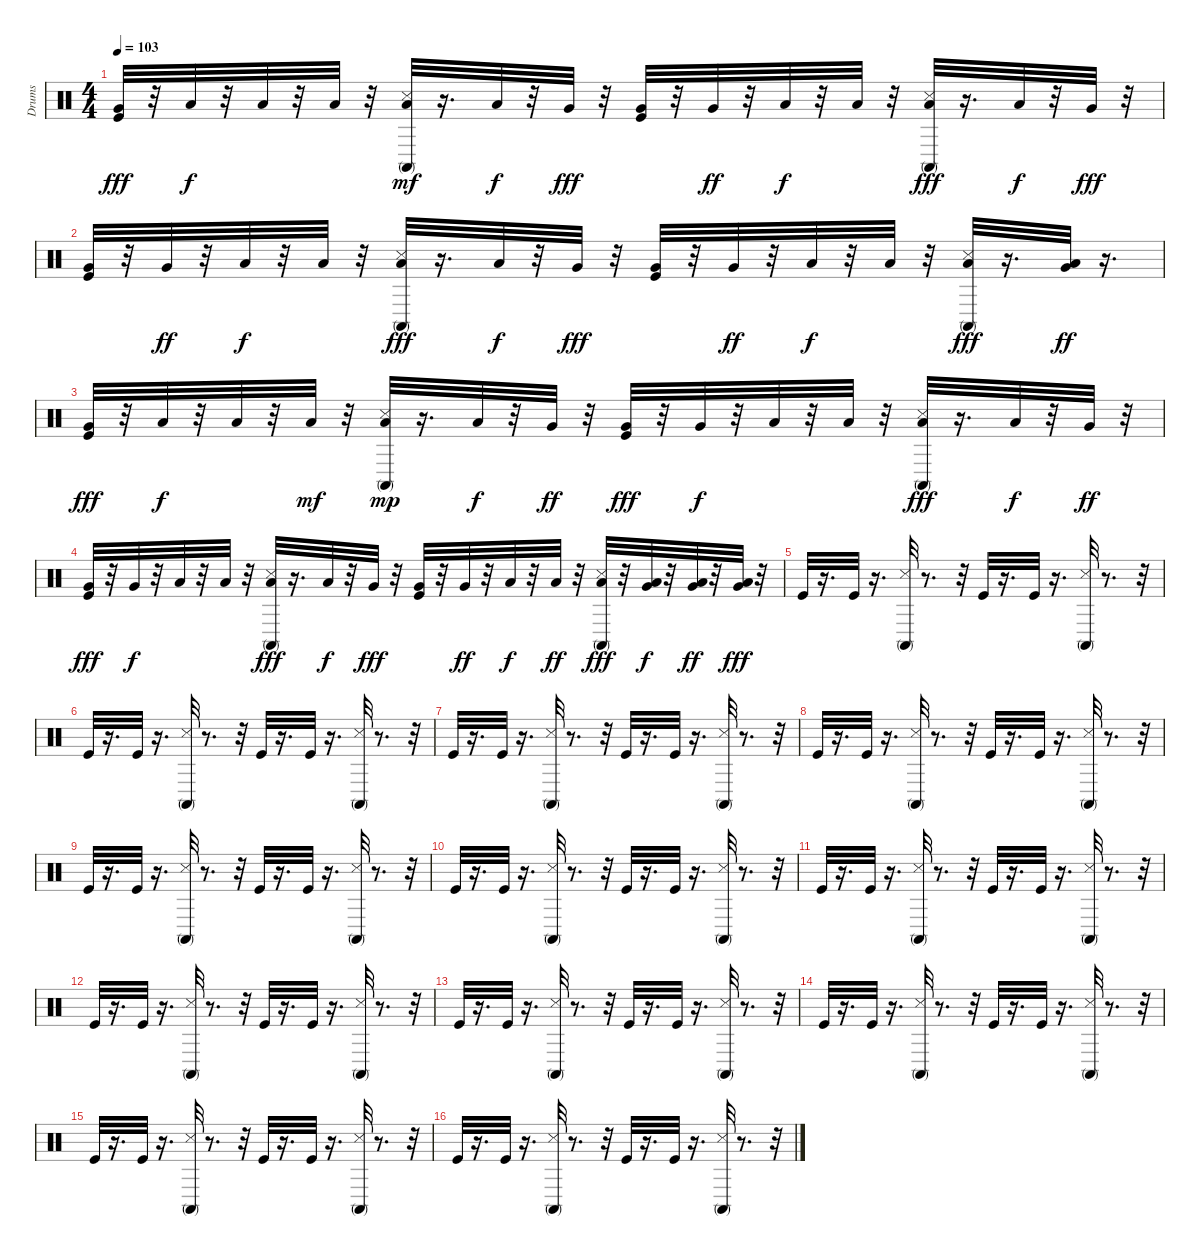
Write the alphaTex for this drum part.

\track ("Drums" "Drums") {instrument percussion}
\staff {score}
\articulation defaults
\ts (4 4)
\tempo 103
\clef neutral
\ks c
("Very Low Tom (hit)" "Kick (hit)").32{dy fff} r.32 "Low Floor Tom (hit)".32{dy f} r.32 "Low Floor Tom (hit)".32 r.32 "Low Floor Tom (hit)".32 r.32 ("Conga high (mute)" "Snare (side stick) 3" "Low Floor Tom (hit)").32{dy mf} r.16{d} "Low Floor Tom (hit)".32{dy f} r.32 "Very Low Tom (hit)".32{dy fff} r.32 ("Very Low Tom (hit)" "Kick (hit)").32 r.32 "Very Low Tom (hit)".32{dy ff} r.32 "Low Floor Tom (hit)".32{dy f} r.32 "Low Floor Tom (hit)".32 r.32 ("Conga high (mute)" "Low Floor Tom (hit)" "Snare (side stick) 3").32{dy fff} r.16{d} "Low Floor Tom (hit)".32{dy f} r.32 "Very Low Tom (hit)".32{dy fff} r.32 |
("Very Low Tom (hit)" "Kick (hit)").32 r.32 "Very Low Tom (hit)".32{dy ff} r.32 "Low Floor Tom (hit)".32{dy f} r.32 "Low Floor Tom (hit)".32 r.32 ("Conga high (mute)" "Low Floor Tom (hit)" "Snare (side stick) 3").32{dy fff} r.16{d} "Low Floor Tom (hit)".32{dy f} r.32 "Very Low Tom (hit)".32{dy fff} r.32 ("Very Low Tom (hit)" "Kick (hit)").32 r.32 "Very Low Tom (hit)".32{dy ff} r.32 "Low Floor Tom (hit)".32{dy f} r.32 "Low Floor Tom (hit)".32 r.32 ("Conga high (mute)" "Low Floor Tom (hit)" "Snare (side stick) 3").32{dy fff} r.16{d} ("Low Floor Tom (hit)" "Very Low Tom (hit)").32{dy ff} r.16{d} |
("Very Low Tom (hit)" "Kick (hit)").32{dy fff} r.32 "Low Floor Tom (hit)".32{dy f} r.32 "Low Floor Tom (hit)".32 r.32 "Low Floor Tom (hit)".32{dy mf} r.32 ("Conga high (mute)" "Snare (side stick) 3" "Low Floor Tom (hit)").32{dy mp} r.16{d} "Low Floor Tom (hit)".32{dy f} r.32 "Very Low Tom (hit)".32{dy ff} r.32 ("Very Low Tom (hit)" "Kick (hit)").32{dy fff} r.32 "Very Low Tom (hit)".32{dy f} r.32 "Low Floor Tom (hit)".32 r.32 "Low Floor Tom (hit)".32 r.32 ("Conga high (mute)" "Low Floor Tom (hit)" "Snare (side stick) 3").32{dy fff} r.16{d} "Low Floor Tom (hit)".32{dy f} r.32 "Very Low Tom (hit)".32{dy ff} r.32 |
("Very Low Tom (hit)" "Kick (hit)").32{dy fff} r.32 "Very Low Tom (hit)".32{dy f} r.32 "Low Floor Tom (hit)".32 r.32 "Low Floor Tom (hit)".32 r.32 ("Conga high (mute)" "Low Floor Tom (hit)" "Snare (side stick) 3").32{dy fff} r.16{d} "Low Floor Tom (hit)".32{dy f} r.32 "Very Low Tom (hit)".32{dy fff} r.32 ("Very Low Tom (hit)" "Kick (hit)").32 r.32 "Very Low Tom (hit)".32{dy ff} r.32 "Low Floor Tom (hit)".32{dy f} r.32 "Low Floor Tom (hit)".32{dy ff} r.32 ("Conga high (mute)" "Low Floor Tom (hit)" "Snare (side stick) 3").32{dy fff} r.32 ("Very Low Tom (hit)" "Low Floor Tom (hit)").32{dy f} r.32 ("Very Low Tom (hit)" "Low Floor Tom (hit)").32{dy ff} r.32 ("Very Low Tom (hit)" "Low Floor Tom (hit)").32{dy fff} r.32 |
"Kick (hit)".32 r.16{d} "Kick (hit)".32 r.16{d} ("Conga high (mute)" "Snare (side stick) 3").32 r.8{d} r.32 "Kick (hit)".32 r.16{d} "Kick (hit)".32 r.16{d} ("Conga high (mute)" "Snare (side stick) 3").32 r.8{d} r.32 |
"Kick (hit)".32 r.16{d} "Kick (hit)".32 r.16{d} ("Conga high (mute)" "Snare (side stick) 3").32 r.8{d} r.32 "Kick (hit)".32 r.16{d} "Kick (hit)".32 r.16{d} ("Conga high (mute)" "Snare (side stick) 3").32 r.8{d} r.32 |
"Kick (hit)".32 r.16{d} "Kick (hit)".32 r.16{d} ("Conga high (mute)" "Snare (side stick) 3").32 r.8{d} r.32 "Kick (hit)".32 r.16{d} "Kick (hit)".32 r.16{d} ("Conga high (mute)" "Snare (side stick) 3").32 r.8{d} r.32 |
"Kick (hit)".32 r.16{d} "Kick (hit)".32 r.16{d} ("Conga high (mute)" "Snare (side stick) 3").32 r.8{d} r.32 "Kick (hit)".32 r.16{d} "Kick (hit)".32 r.16{d} ("Conga high (mute)" "Snare (side stick) 3").32 r.8{d} r.32 |
"Kick (hit)".32 r.16{d} "Kick (hit)".32 r.16{d} ("Conga high (mute)" "Snare (side stick) 3").32 r.8{d} r.32 "Kick (hit)".32 r.16{d} "Kick (hit)".32 r.16{d} ("Conga high (mute)" "Snare (side stick) 3").32 r.8{d} r.32 |
"Kick (hit)".32 r.16{d} "Kick (hit)".32 r.16{d} ("Conga high (mute)" "Snare (side stick) 3").32 r.8{d} r.32 "Kick (hit)".32 r.16{d} "Kick (hit)".32 r.16{d} ("Conga high (mute)" "Snare (side stick) 3").32 r.8{d} r.32 |
"Kick (hit)".32 r.16{d} "Kick (hit)".32 r.16{d} ("Conga high (mute)" "Snare (side stick) 3").32 r.8{d} r.32 "Kick (hit)".32 r.16{d} "Kick (hit)".32 r.16{d} ("Conga high (mute)" "Snare (side stick) 3").32 r.8{d} r.32 |
"Kick (hit)".32 r.16{d} "Kick (hit)".32 r.16{d} ("Conga high (mute)" "Snare (side stick) 3").32 r.8{d} r.32 "Kick (hit)".32 r.16{d} "Kick (hit)".32 r.16{d} ("Conga high (mute)" "Snare (side stick) 3").32 r.8{d} r.32 |
"Kick (hit)".32 r.16{d} "Kick (hit)".32 r.16{d} ("Conga high (mute)" "Snare (side stick) 3").32 r.8{d} r.32 "Kick (hit)".32 r.16{d} "Kick (hit)".32 r.16{d} ("Conga high (mute)" "Snare (side stick) 3").32 r.8{d} r.32 |
"Kick (hit)".32 r.16{d} "Kick (hit)".32 r.16{d} ("Conga high (mute)" "Snare (side stick) 3").32 r.8{d} r.32 "Kick (hit)".32 r.16{d} "Kick (hit)".32 r.16{d} ("Conga high (mute)" "Snare (side stick) 3").32 r.8{d} r.32 |
"Kick (hit)".32 r.16{d} "Kick (hit)".32 r.16{d} ("Conga high (mute)" "Snare (side stick) 3").32 r.8{d} r.32 "Kick (hit)".32 r.16{d} "Kick (hit)".32 r.16{d} ("Conga high (mute)" "Snare (side stick) 3").32 r.8{d} r.32 |
"Kick (hit)".32 r.16{d} "Kick (hit)".32 r.16{d} ("Conga high (mute)" "Snare (side stick) 3").32 r.8{d} r.32 "Kick (hit)".32 r.16{d} "Kick (hit)".32 r.16{d} ("Conga high (mute)" "Snare (side stick) 3").32 r.8{d} r.32
